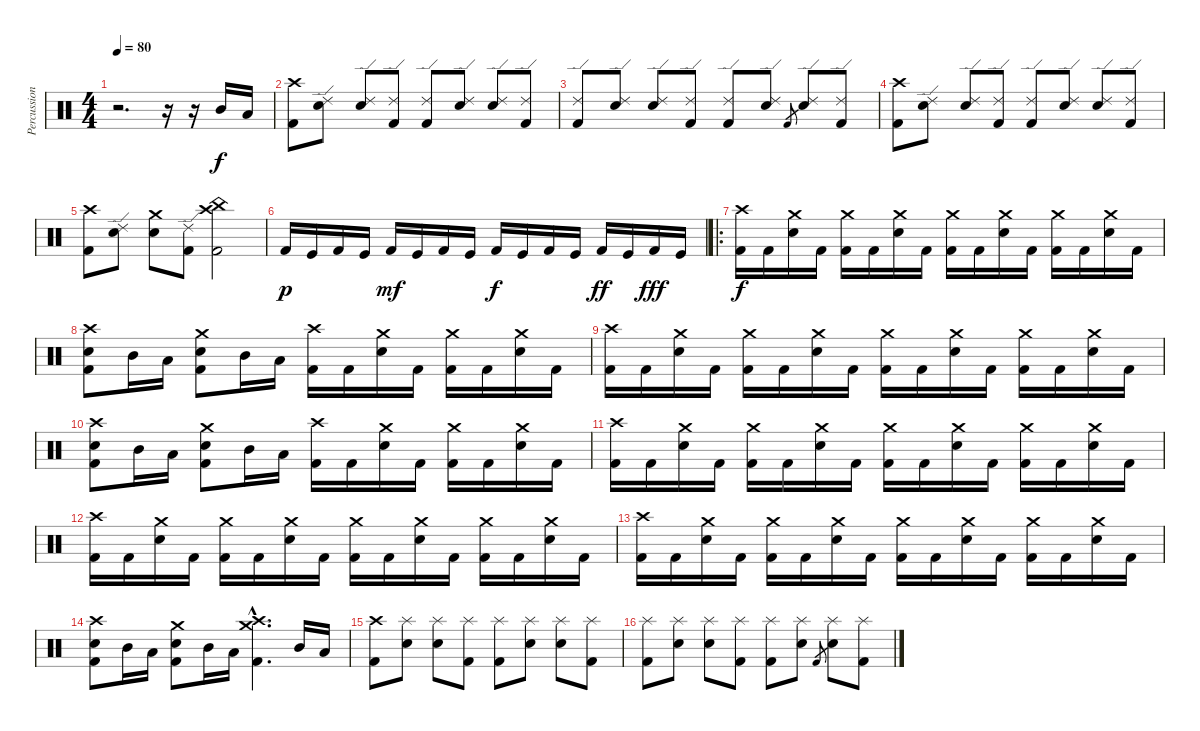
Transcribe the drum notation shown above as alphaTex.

\track ("Percussion" "Percussion") {instrument percussion}
\staff {score}
\articulation defaults
\ts (4 4)
\tempo 80
\clef neutral
\ks c
r.2{d dy f} r.16 r.16 "Mid Tom (hit)".16 "Low Tom (hit)".16 |
("Crash high (hit)" "Kick (hit) 2").8 ("Ride (edge) 2" "Snare (hit)").8 ("Ride (edge) 2" "Snare (hit) 2").8 ("Ride (edge) 2" "Kick (hit) 2").8 ("Ride (edge) 2" "Kick (hit) 2").8 ("Ride (edge) 2" "Snare (hit)").8 ("Ride (edge) 2" "Snare (hit) 2").8 ("Ride (edge) 2" "Kick (hit) 2").8 |
("Ride (edge) 2" "Kick (hit) 2").8 ("Ride (edge) 2" "Snare (hit)").8 ("Ride (edge) 2" "Snare (hit) 2").8 ("Ride (edge) 2" "Kick (hit) 2").8 ("Ride (edge) 2" "Kick (hit) 2").8 ("Ride (edge) 2" "Snare (hit)").8 "Kick (hit) 2".8{gr} ("Ride (edge) 2" "Snare (hit) 2").8 ("Ride (edge) 2" "Kick (hit) 2").8 |
("Crash high (hit)" "Kick (hit) 2").8 ("Ride (edge) 2" "Snare (hit)").8 ("Ride (edge) 2" "Snare (hit) 2").8 ("Ride (edge) 2" "Kick (hit) 2").8 ("Ride (edge) 2" "Kick (hit) 2").8 ("Ride (edge) 2" "Snare (hit)").8 ("Ride (edge) 2" "Snare (hit) 2").8 ("Ride (edge) 2" "Kick (hit) 2").8 |
("Crash high (hit)" "Kick (hit) 2").8 ("Ride (edge) 2" "Snare (hit)").8 ("Crash medium (hit)" "Snare (hit) 2").8 ("Ride (edge) 2" "Kick (hit) 2").8 ("China (hit)" "Crash high (hit)" "Kick (hit) 2").2 |
"Kick (hit) 2".16{dy p} "Kick (hit)".16 "Kick (hit) 2".16 "Kick (hit)".16 "Kick (hit) 2".16{dy mf} "Kick (hit)".16 "Kick (hit) 2".16 "Kick (hit)".16 "Kick (hit) 2".16{dy f} "Kick (hit)".16 "Kick (hit) 2".16 "Kick (hit)".16 "Kick (hit) 2".16{dy ff} "Kick (hit)".16 "Kick (hit) 2".16{dy fff} "Kick (hit)".16 |
\ro
("Crash high (hit)" "Kick (hit) 2").16{dy f} "Kick (hit) 2".16 ("Crash medium (hit)" "Snare (hit) 2").16 "Kick (hit) 2".16 ("Crash medium (hit)" "Kick (hit) 2").16 "Kick (hit) 2".16 ("Crash medium (hit)" "Snare (hit) 2").16 "Kick (hit) 2".16 ("Crash medium (hit)" "Kick (hit) 2").16 "Kick (hit) 2".16 ("Crash medium (hit)" "Snare (hit) 2").16 "Kick (hit) 2".16 ("Crash medium (hit)" "Kick (hit) 2").16 "Kick (hit) 2".16 ("Crash medium (hit)" "Snare (hit) 2").16 "Kick (hit) 2".16 |
("Crash high (hit)" "Snare (hit) 2" "Kick (hit) 2").8 "Mid Tom (hit)".16 "Low Tom (hit)".16 ("Crash medium (hit)" "Kick (hit) 2" "Snare (hit) 2").8 "Mid Tom (hit)".16 "Low Tom (hit)".16 ("Crash high (hit)" "Kick (hit) 2").16 "Kick (hit) 2".16 ("Crash medium (hit)" "Snare (hit) 2").16 "Kick (hit) 2".16 ("Crash medium (hit)" "Kick (hit) 2").16 "Kick (hit) 2".16 ("Crash medium (hit)" "Snare (hit) 2").16 "Kick (hit) 2".16 |
("Crash high (hit)" "Kick (hit) 2").16 "Kick (hit) 2".16 ("Crash medium (hit)" "Snare (hit) 2").16 "Kick (hit) 2".16 ("Crash medium (hit)" "Kick (hit) 2").16 "Kick (hit) 2".16 ("Crash medium (hit)" "Snare (hit) 2").16 "Kick (hit) 2".16 ("Crash medium (hit)" "Kick (hit) 2").16 "Kick (hit) 2".16 ("Crash medium (hit)" "Snare (hit) 2").16 "Kick (hit) 2".16 ("Crash medium (hit)" "Kick (hit) 2").16 "Kick (hit) 2".16 ("Crash medium (hit)" "Snare (hit) 2").16 "Kick (hit) 2".16 |
("Crash high (hit)" "Snare (hit) 2" "Kick (hit) 2").8 "Mid Tom (hit)".16 "Low Tom (hit)".16 ("Crash medium (hit)" "Kick (hit) 2" "Snare (hit) 2").8 "Mid Tom (hit)".16 "Low Tom (hit)".16 ("Crash high (hit)" "Kick (hit) 2").16 "Kick (hit) 2".16 ("Crash medium (hit)" "Snare (hit) 2").16 "Kick (hit) 2".16 ("Crash medium (hit)" "Kick (hit) 2").16 "Kick (hit) 2".16 ("Crash medium (hit)" "Snare (hit) 2").16 "Kick (hit) 2".16 |
("Crash high (hit)" "Kick (hit) 2").16 "Kick (hit) 2".16 ("Crash medium (hit)" "Snare (hit) 2").16 "Kick (hit) 2".16 ("Crash medium (hit)" "Kick (hit) 2").16 "Kick (hit) 2".16 ("Crash medium (hit)" "Snare (hit) 2").16 "Kick (hit) 2".16 ("Crash medium (hit)" "Kick (hit) 2").16 "Kick (hit) 2".16 ("Crash medium (hit)" "Snare (hit) 2").16 "Kick (hit) 2".16 ("Crash medium (hit)" "Kick (hit) 2").16 "Kick (hit) 2".16 ("Crash medium (hit)" "Snare (hit) 2").16 "Kick (hit) 2".16 |
("Crash high (hit)" "Kick (hit) 2").16 "Kick (hit) 2".16 ("Crash medium (hit)" "Snare (hit) 2").16 "Kick (hit) 2".16 ("Crash medium (hit)" "Kick (hit) 2").16 "Kick (hit) 2".16 ("Crash medium (hit)" "Snare (hit) 2").16 "Kick (hit) 2".16 ("Crash medium (hit)" "Kick (hit) 2").16 "Kick (hit) 2".16 ("Crash medium (hit)" "Snare (hit) 2").16 "Kick (hit) 2".16 ("Crash medium (hit)" "Kick (hit) 2").16 "Kick (hit) 2".16 ("Crash medium (hit)" "Snare (hit) 2").16 "Kick (hit) 2".16 |
("Crash high (hit)" "Kick (hit) 2").16 "Kick (hit) 2".16 ("Crash medium (hit)" "Snare (hit) 2").16 "Kick (hit) 2".16 ("Crash medium (hit)" "Kick (hit) 2").16 "Kick (hit) 2".16 ("Crash medium (hit)" "Snare (hit) 2").16 "Kick (hit) 2".16 ("Crash medium (hit)" "Kick (hit) 2").16 "Kick (hit) 2".16 ("Crash medium (hit)" "Snare (hit) 2").16 "Kick (hit) 2".16 ("Crash medium (hit)" "Kick (hit) 2").16 "Kick (hit) 2".16 ("Crash medium (hit)" "Snare (hit) 2").16 "Kick (hit) 2".16 |
("Crash high (hit)" "Snare (hit) 2" "Kick (hit) 2").8 "Mid Tom (hit)".16 "Low Tom (hit)".16 ("Crash medium (hit)" "Kick (hit) 2" "Snare (hit) 2").8 "Mid Tom (hit)".16 "Low Tom (hit)".16 ("Crash high (hit)"{hac} "Crash medium (hit)"{hac} "Kick (hit) 2"{hac}).4{d} "Mid Tom (hit)".16 "Low Tom (hit)".16 |
("Crash high (hit)" "Kick (hit) 2").8 ("Splash (hit)" "Snare (hit)").8 ("Splash (hit)" "Snare (hit) 2").8 ("Splash (hit)" "Kick (hit) 2").8 ("Splash (hit)" "Kick (hit) 2").8 ("Splash (hit)" "Snare (hit)").8 ("Splash (hit)" "Snare (hit) 2").8 ("Splash (hit)" "Kick (hit) 2").8 |
("Splash (hit)" "Kick (hit) 2").8 ("Splash (hit)" "Snare (hit)").8 ("Splash (hit)" "Snare (hit) 2").8 ("Splash (hit)" "Kick (hit) 2").8 ("Splash (hit)" "Kick (hit) 2").8 ("Splash (hit)" "Snare (hit)").8 "Kick (hit) 2".8{gr} ("Splash (hit)" "Snare (hit) 2").8 ("Splash (hit)" "Kick (hit) 2").8
